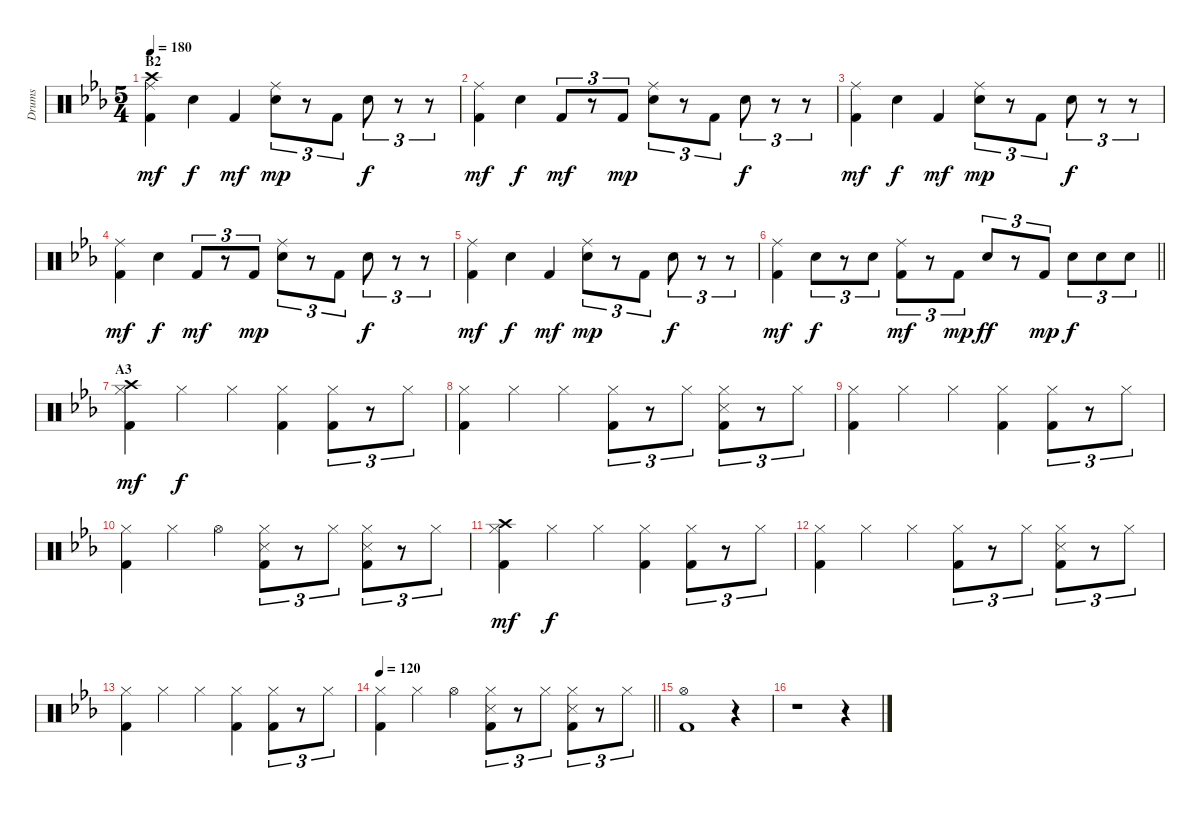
\track ("Drums" "Drums") {instrument percussion}
\staff {score}
\articulation defaults
\ts (5 4)
\section ("" "B2")
\tempo 180
\clef neutral
\ks eb
("Ride (middle)" "Crash high (hit)" "Kick (hit) 2").4{dy mf} "Hand Clap (hit)".4{dy f} "Kick (hit) 2".4{dy mf} ("Ride (middle)" "Hand Clap (hit)").8{tu (3 2) dy mp} r.8{tu (3 2)} "Kick (hit) 2".8{tu (3 2)} "Hand Clap (hit)".8{tu (3 2) dy f} r.8{tu (3 2)} r.8{tu (3 2)} |
("Ride (middle)" "Kick (hit) 2").4{dy mf} "Hand Clap (hit)".4{dy f} "Kick (hit) 2".8{tu (3 2) dy mf} r.8{tu (3 2)} "Kick (hit) 2".8{tu (3 2) dy mp} ("Ride (middle)" "Hand Clap (hit)").8{tu (3 2)} r.8{tu (3 2)} "Kick (hit) 2".8{tu (3 2)} "Hand Clap (hit)".8{tu (3 2) dy f} r.8{tu (3 2)} r.8{tu (3 2)} |
("Ride (middle)" "Kick (hit) 2").4{dy mf} "Hand Clap (hit)".4{dy f} "Kick (hit) 2".4{dy mf} ("Ride (middle)" "Hand Clap (hit)").8{tu (3 2) dy mp} r.8{tu (3 2)} "Kick (hit) 2".8{tu (3 2)} "Hand Clap (hit)".8{tu (3 2) dy f} r.8{tu (3 2)} r.8{tu (3 2)} |
("Ride (middle)" "Kick (hit) 2").4{dy mf} "Hand Clap (hit)".4{dy f} "Kick (hit) 2".8{tu (3 2) dy mf} r.8{tu (3 2)} "Kick (hit) 2".8{tu (3 2) dy mp} ("Ride (middle)" "Hand Clap (hit)").8{tu (3 2)} r.8{tu (3 2)} "Kick (hit) 2".8{tu (3 2)} "Hand Clap (hit)".8{tu (3 2) dy f} r.8{tu (3 2)} r.8{tu (3 2)} |
("Ride (middle)" "Kick (hit) 2").4{dy mf} "Hand Clap (hit)".4{dy f} "Kick (hit) 2".4{dy mf} ("Ride (middle)" "Hand Clap (hit)").8{tu (3 2) dy mp} r.8{tu (3 2)} "Kick (hit) 2".8{tu (3 2)} "Hand Clap (hit)".8{tu (3 2) dy f} r.8{tu (3 2)} r.8{tu (3 2)} |
\barLineRight lightlight
("Ride (middle)" "Kick (hit) 2").4{dy mf} "Hand Clap (hit)".8{tu (3 2) dy f} r.8{tu (3 2)} "Hand Clap (hit)".8{tu (3 2)} ("Ride (middle)" "Kick (hit) 2").8{tu (3 2) dy mf} r.8{tu (3 2)} "Kick (hit) 2".8{tu (3 2) dy mp} "Hand Clap (hit)".8{tu (3 2) dy ff} r.8{tu (3 2)} "Kick (hit) 2".8{tu (3 2) dy mp} "Hand Clap (hit)".8{tu (3 2) dy f} "Hand Clap (hit)".8{tu (3 2)} "Hand Clap (hit)".8{tu (3 2)} |
\section ("" "A3")
("Hi-Hat (closed)" "Crash high (hit)" "Kick (hit) 2").4{dy mf} "Hi-Hat (closed)".4{dy f} "Hi-Hat (closed)".4 ("Hi-Hat (closed)" "Kick (hit) 2").4 ("Hi-Hat (closed)" "Kick (hit) 2").8{tu (3 2)} r.8{tu (3 2)} "Hi-Hat (closed)".8{tu (3 2)} |
("Hi-Hat (closed)" "Kick (hit) 2").4 "Hi-Hat (closed)".4 "Hi-Hat (closed)".4 ("Hi-Hat (closed)" "Kick (hit) 2").8{tu (3 2)} r.8{tu (3 2)} "Hi-Hat (closed)".8{tu (3 2)} ("Hi-Hat (closed)" "Snare (side stick) 3" "Kick (hit) 2").8{tu (3 2)} r.8{tu (3 2)} "Hi-Hat (closed)".8{tu (3 2)} |
("Hi-Hat (closed)" "Kick (hit) 2").4 "Hi-Hat (closed)".4 "Hi-Hat (closed)".4 ("Hi-Hat (closed)" "Kick (hit) 2").4 ("Hi-Hat (closed)" "Kick (hit) 2").8{tu (3 2)} r.8{tu (3 2)} "Hi-Hat (closed)".8{tu (3 2)} |
("Hi-Hat (closed)" "Kick (hit) 2").4 "Hi-Hat (closed)".4 "Hi-Hat (open)".4 ("Hi-Hat (closed)" "Snare (side stick) 3" "Kick (hit) 2").8{tu (3 2)} r.8{tu (3 2)} "Hi-Hat (closed)".8{tu (3 2)} ("Hi-Hat (closed)" "Snare (side stick) 3" "Kick (hit) 2").8{tu (3 2)} r.8{tu (3 2)} "Hi-Hat (closed)".8{tu (3 2)} |
("Hi-Hat (closed)" "Crash high (hit)" "Kick (hit) 2").4{dy mf} "Hi-Hat (closed)".4{dy f} "Hi-Hat (closed)".4 ("Hi-Hat (closed)" "Kick (hit) 2").4 ("Hi-Hat (closed)" "Kick (hit) 2").8{tu (3 2)} r.8{tu (3 2)} "Hi-Hat (closed)".8{tu (3 2)} |
("Hi-Hat (closed)" "Kick (hit) 2").4 "Hi-Hat (closed)".4 "Hi-Hat (closed)".4 ("Hi-Hat (closed)" "Kick (hit) 2").8{tu (3 2)} r.8{tu (3 2)} "Hi-Hat (closed)".8{tu (3 2)} ("Hi-Hat (closed)" "Snare (side stick) 3" "Kick (hit) 2").8{tu (3 2)} r.8{tu (3 2)} "Hi-Hat (closed)".8{tu (3 2)} |
("Hi-Hat (closed)" "Kick (hit) 2").4 "Hi-Hat (closed)".4 "Hi-Hat (closed)".4 ("Hi-Hat (closed)" "Kick (hit) 2").4 ("Hi-Hat (closed)" "Kick (hit) 2").8{tu (3 2)} r.8{tu (3 2)} "Hi-Hat (closed)".8{tu (3 2)} |
\tempo 120
\barLineRight lightlight
("Hi-Hat (closed)" "Kick (hit) 2").4 "Hi-Hat (closed)".4 "Hi-Hat (open)".4 ("Hi-Hat (closed)" "Snare (side stick) 3" "Kick (hit) 2").8{tu (3 2)} r.8{tu (3 2)} "Hi-Hat (closed)".8{tu (3 2)} ("Hi-Hat (closed)" "Snare (side stick) 3" "Kick (hit) 2").8{tu (3 2)} r.8{tu (3 2)} "Hi-Hat (closed)".8{tu (3 2)} |
("Hi-Hat (open)" "Kick (hit) 2").1 r.4 |
r.1 r.4
